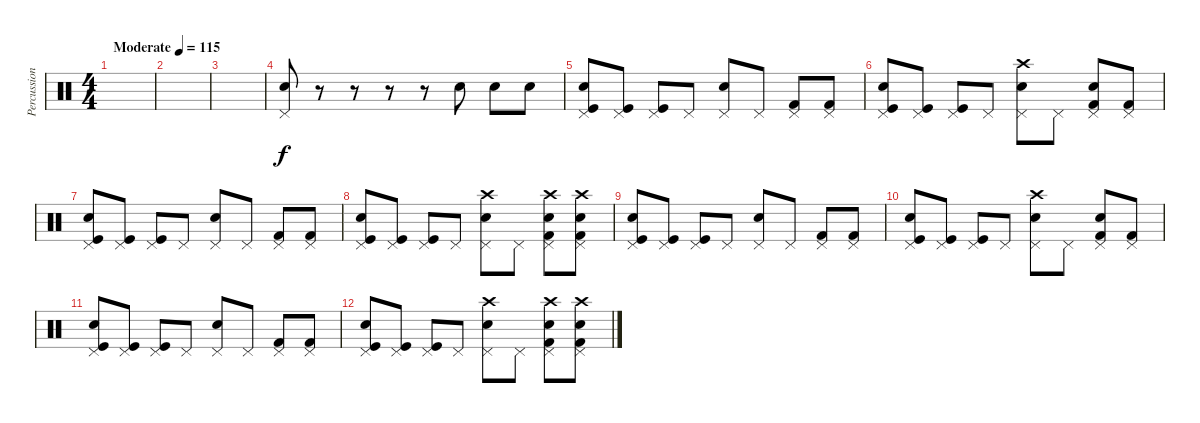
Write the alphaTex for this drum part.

\track ("Percussion" "Percussion") {mute instrument percussion}
\staff {score}
\articulation defaults
\ts (4 4)
\tempo (115 "Moderate")
\clef neutral
\ks c
|
|
|
("Electric Snare (hit)" "Pedal Hi-Hat (hit)").8 r.8 r.8 r.8 r.8 "Electric Snare (hit)".8 "Electric Snare (hit)".8 "Electric Snare (hit)".8 |
("Kick (hit)" "Pedal Hi-Hat (hit)" "Electric Snare (hit)").8 ("Kick (hit)" "Pedal Hi-Hat (hit)").8 ("Kick (hit)" "Pedal Hi-Hat (hit)").8 "Pedal Hi-Hat (hit)".8 ("Pedal Hi-Hat (hit)" "Electric Snare (hit)").8 "Pedal Hi-Hat (hit)".8 ("Kick (hit) 2" "Pedal Hi-Hat (hit)").8 ("Kick (hit) 2" "Pedal Hi-Hat (hit)").8 |
("Kick (hit)" "Pedal Hi-Hat (hit)" "Electric Snare (hit)").8 ("Kick (hit)" "Pedal Hi-Hat (hit)").8 ("Kick (hit)" "Pedal Hi-Hat (hit)").8 "Pedal Hi-Hat (hit)".8 ("Pedal Hi-Hat (hit)" "Electric Snare (hit)" "Crash high (hit)").8 "Pedal Hi-Hat (hit)".8 ("Kick (hit) 2" "Pedal Hi-Hat (hit)" "Electric Snare (hit)").8 ("Kick (hit) 2" "Pedal Hi-Hat (hit)").8 |
("Kick (hit)" "Pedal Hi-Hat (hit)" "Electric Snare (hit)").8 ("Kick (hit)" "Pedal Hi-Hat (hit)").8 ("Kick (hit)" "Pedal Hi-Hat (hit)").8 "Pedal Hi-Hat (hit)".8 ("Pedal Hi-Hat (hit)" "Electric Snare (hit)").8 "Pedal Hi-Hat (hit)".8 ("Kick (hit) 2" "Pedal Hi-Hat (hit)").8 ("Kick (hit) 2" "Pedal Hi-Hat (hit)").8 |
("Kick (hit)" "Pedal Hi-Hat (hit)" "Electric Snare (hit)").8 ("Kick (hit)" "Pedal Hi-Hat (hit)").8 ("Kick (hit)" "Pedal Hi-Hat (hit)").8 "Pedal Hi-Hat (hit)".8 ("Pedal Hi-Hat (hit)" "Electric Snare (hit)" "Crash high (hit)").8 "Pedal Hi-Hat (hit)".8 ("Kick (hit) 2" "Pedal Hi-Hat (hit)" "Electric Snare (hit)" "Crash high (hit)").8 ("Kick (hit) 2" "Pedal Hi-Hat (hit)" "Electric Snare (hit)" "Crash high (hit)").8 |
("Kick (hit)" "Pedal Hi-Hat (hit)" "Electric Snare (hit)").8 ("Kick (hit)" "Pedal Hi-Hat (hit)").8 ("Kick (hit)" "Pedal Hi-Hat (hit)").8 "Pedal Hi-Hat (hit)".8 ("Pedal Hi-Hat (hit)" "Electric Snare (hit)").8 "Pedal Hi-Hat (hit)".8 ("Kick (hit) 2" "Pedal Hi-Hat (hit)").8 ("Kick (hit) 2" "Pedal Hi-Hat (hit)").8 |
("Kick (hit)" "Pedal Hi-Hat (hit)" "Electric Snare (hit)").8 ("Kick (hit)" "Pedal Hi-Hat (hit)").8 ("Kick (hit)" "Pedal Hi-Hat (hit)").8 "Pedal Hi-Hat (hit)".8 ("Pedal Hi-Hat (hit)" "Electric Snare (hit)" "Crash high (hit)").8 "Pedal Hi-Hat (hit)".8 ("Kick (hit) 2" "Pedal Hi-Hat (hit)" "Electric Snare (hit)").8 ("Kick (hit) 2" "Pedal Hi-Hat (hit)").8 |
("Kick (hit)" "Pedal Hi-Hat (hit)" "Electric Snare (hit)").8 ("Kick (hit)" "Pedal Hi-Hat (hit)").8 ("Kick (hit)" "Pedal Hi-Hat (hit)").8 "Pedal Hi-Hat (hit)".8 ("Pedal Hi-Hat (hit)" "Electric Snare (hit)").8 "Pedal Hi-Hat (hit)".8 ("Kick (hit) 2" "Pedal Hi-Hat (hit)").8 ("Kick (hit) 2" "Pedal Hi-Hat (hit)").8 |
("Kick (hit)" "Pedal Hi-Hat (hit)" "Electric Snare (hit)").8 ("Kick (hit)" "Pedal Hi-Hat (hit)").8 ("Kick (hit)" "Pedal Hi-Hat (hit)").8 "Pedal Hi-Hat (hit)".8 ("Pedal Hi-Hat (hit)" "Electric Snare (hit)" "Crash high (hit)").8 "Pedal Hi-Hat (hit)".8 ("Kick (hit) 2" "Pedal Hi-Hat (hit)" "Electric Snare (hit)" "Crash high (hit)").8 ("Kick (hit) 2" "Pedal Hi-Hat (hit)" "Electric Snare (hit)" "Crash high (hit)").8
